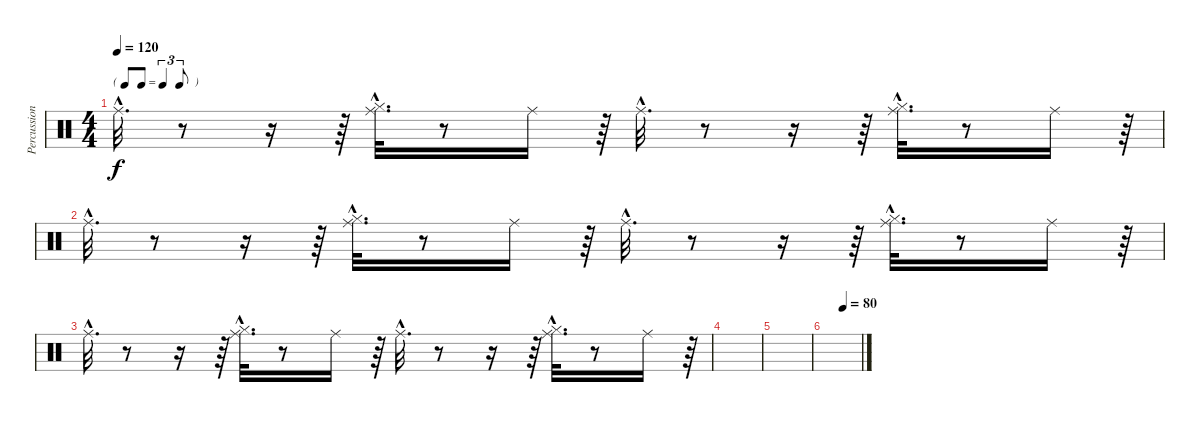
\track ("Percussions" "Percussion") {instrument percussion}
\staff {score}
\articulation defaults
\ts (4 4)
\tf triplet8th
\tempo 120
\clef neutral
\ks c "Ride (middle)"{hac}.32{d dy f}
r.8 r.16 r.64 ("Hi-Hat (closed)"{hac} "Ride (middle)"{hac}).32{d} r.8 "Ride (middle)".16 r.64 "Ride (middle)"{hac}.32{d} r.8 r.16 r.64 ("Hi-Hat (closed)"{hac} "Ride (middle)"{hac}).32{d} r.8 "Ride (middle)".16 r.64 |
"Ride (middle)"{hac}.32{d} r.8 r.16 r.64 ("Hi-Hat (closed)"{hac} "Ride (middle)"{hac}).32{d} r.8 "Ride (middle)".16 r.64 "Ride (middle)"{hac}.32{d} r.8 r.16 r.64 ("Hi-Hat (closed)"{hac} "Ride (middle)"{hac}).32{d} r.8 "Ride (middle)".16 r.64 |
"Ride (middle)"{hac}.32{d} r.8 r.16 r.64 ("Hi-Hat (closed)"{hac} "Ride (middle)"{hac}).32{d} r.8 "Ride (middle)".16 r.64 "Ride (middle)"{hac}.32{d} r.8 r.16 r.64 ("Hi-Hat (closed)"{hac} "Ride (middle)"{hac}).32{d} r.8 "Ride (middle)".16 r.64 |
|
|
\tempo (80 0.5)
